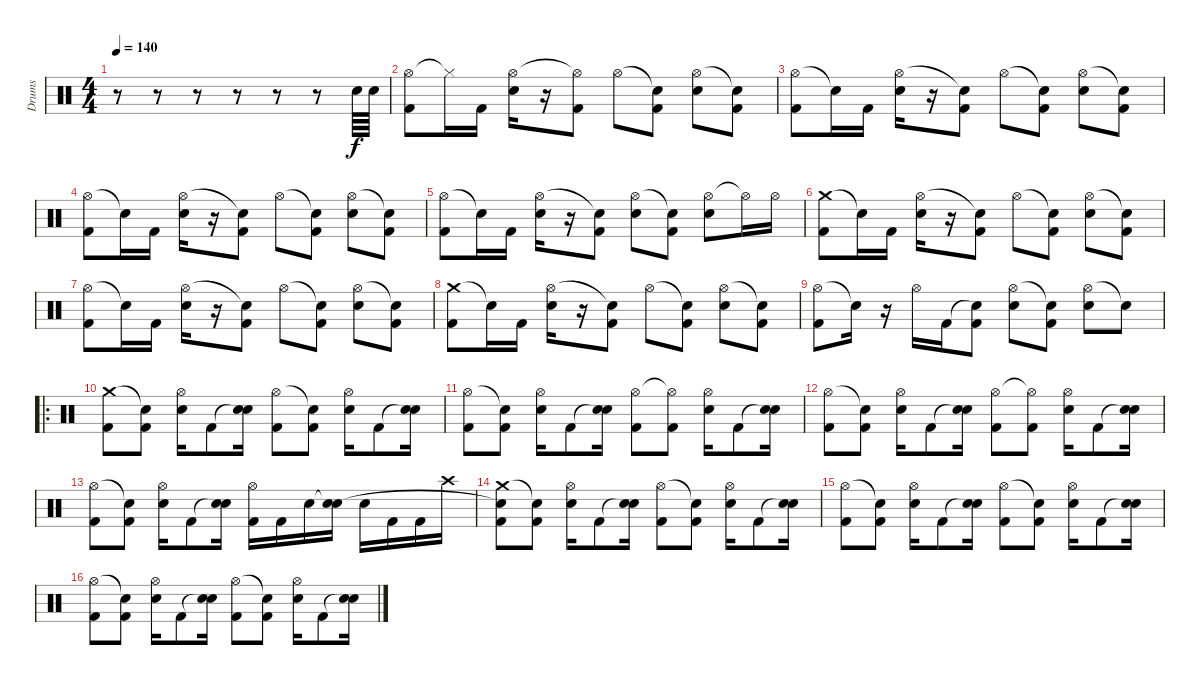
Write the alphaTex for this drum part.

\track ("Drums" "Drums") {instrument percussion}
\staff {score}
\articulation defaults
\ts (4 4)
\tempo 140
\clef neutral
\ks c
r.8{dy f} r.8 r.8 r.8 r.8 r.8 "Electric Snare (hit)".64 "Electric Snare (hit)".64 |
("Hi-Hat (open)" "Kick (hit) 2").8 "Hi-Hat (closed)"{t}.16 "Kick (hit) 2".16 ("Hi-Hat (open)" "Electric Snare (hit)").16 r.16 ("Hi-Hat (open)"{t} "Kick (hit) 2").8 "Hi-Hat (open)".8 ("Snare (hit)"{t} "Kick (hit) 2").8 ("Hi-Hat (open)" "Electric Snare (hit)").8 ("Snare (hit)"{t} "Kick (hit) 2").8 |
("Hi-Hat (open)" "Kick (hit) 2").8 "Snare (hit)"{t}.16 "Kick (hit) 2".16 ("Hi-Hat (open)" "Electric Snare (hit)").16 r.16 ("Snare (hit)"{t} "Kick (hit) 2").8 "Hi-Hat (open)".8 ("Snare (hit)"{t} "Kick (hit) 2").8 ("Hi-Hat (open)" "Electric Snare (hit)").8 ("Snare (hit)"{t} "Kick (hit) 2").8 |
("Hi-Hat (open)" "Kick (hit) 2").8 "Snare (hit)"{t}.16 "Kick (hit) 2".16 ("Hi-Hat (open)" "Electric Snare (hit)").16 r.16 ("Snare (hit)"{t} "Kick (hit) 2").8 "Hi-Hat (open)".8 ("Snare (hit)"{t} "Kick (hit) 2").8 ("Hi-Hat (open)" "Electric Snare (hit)").8 ("Snare (hit)"{t} "Kick (hit) 2").8 |
("Hi-Hat (open)" "Kick (hit) 2").8 "Snare (hit)"{t}.16 "Kick (hit) 2".16 ("Hi-Hat (open)" "Electric Snare (hit)").16 r.16 ("Snare (hit)"{t} "Kick (hit) 2").8 ("Hi-Hat (open)" "Electric Snare (hit)").8 ("Snare (hit)"{t} "Kick (hit) 2").8 ("Hi-Hat (open)" "Electric Snare (hit)").8 "Hi-Hat (open)"{t}.16 "Hi-Hat (open)".16 |
("Crash medium (hit)" "Kick (hit) 2").8 "Snare (hit)"{t}.16 "Kick (hit) 2".16 ("Hi-Hat (open)" "Electric Snare (hit)").16 r.16 ("Snare (hit)"{t} "Kick (hit) 2").8 "Hi-Hat (open)".8 ("Snare (hit)"{t} "Kick (hit) 2").8 ("Hi-Hat (open)" "Electric Snare (hit)").8 ("Snare (hit)"{t} "Kick (hit) 2").8 |
("Hi-Hat (open)" "Kick (hit) 2").8 "Snare (hit)"{t}.16 "Kick (hit) 2".16 ("Hi-Hat (open)" "Electric Snare (hit)").16 r.16 ("Snare (hit)"{t} "Kick (hit) 2").8 "Hi-Hat (open)".8 ("Snare (hit)"{t} "Kick (hit) 2").8 ("Hi-Hat (open)" "Electric Snare (hit)").8 ("Snare (hit)"{t} "Kick (hit) 2").8 |
("Crash medium (hit)" "Kick (hit) 2").8 "Snare (hit)"{t}.16 "Kick (hit) 2".16 ("Hi-Hat (open)" "Electric Snare (hit)").16 r.16 ("Snare (hit)"{t} "Kick (hit) 2").8 "Hi-Hat (open)".8 ("Snare (hit)"{t} "Kick (hit) 2").8 ("Hi-Hat (open)" "Electric Snare (hit)").8 ("Snare (hit)"{t} "Kick (hit) 2").8 |
("Hi-Hat (open)" "Kick (hit) 2").8 "Snare (hit)"{t}.16 r.16 "Hi-Hat (open)".16 "Kick (hit) 2".16 ("Snare (hit)"{t} "Kick (hit) 2").8 ("Hi-Hat (open)" "Electric Snare (hit)").8 ("Snare (hit)"{t} "Kick (hit) 2").8 ("Hi-Hat (open)" "Electric Snare (hit)").8 "Snare (hit)"{t}.8 |
\ro
("Crash medium (hit)" "Kick (hit) 2").8 ("Snare (hit)"{t} "Kick (hit) 2").8 ("Hi-Hat (open)" "Electric Snare (hit)").16 "Kick (hit) 2".8 ("Snare (hit)"{t} "Electric Snare (hit)").16 ("Hi-Hat (open)" "Kick (hit) 2").8 ("Snare (hit)"{t} "Kick (hit) 2").8 ("Hi-Hat (open)" "Electric Snare (hit)").16 "Kick (hit) 2".8 ("Snare (hit)"{t} "Electric Snare (hit)").16 |
("Hi-Hat (open)" "Kick (hit) 2").8 ("Snare (hit)"{t} "Kick (hit) 2").8 ("Hi-Hat (open)" "Electric Snare (hit)").16 "Kick (hit) 2".8 ("Snare (hit)"{t} "Electric Snare (hit)").16 ("Hi-Hat (open)" "Kick (hit) 2").8 ("Hi-Hat (open)"{t} "Kick (hit) 2").8 ("Hi-Hat (open)" "Electric Snare (hit)").16 "Kick (hit) 2".8 ("Snare (hit)"{t} "Electric Snare (hit)").16 |
("Hi-Hat (open)" "Kick (hit) 2").8 ("Snare (hit)"{t} "Kick (hit) 2").8 ("Hi-Hat (open)" "Electric Snare (hit)").16 "Kick (hit) 2".8 ("Snare (hit)"{t} "Electric Snare (hit)").16 ("Hi-Hat (open)" "Kick (hit) 2").8 ("Hi-Hat (open)"{t} "Kick (hit) 2").8 ("Hi-Hat (open)" "Electric Snare (hit)").16 "Kick (hit) 2".8 ("Snare (hit)"{t} "Electric Snare (hit)").16 |
("Hi-Hat (open)" "Kick (hit) 2").8 ("Snare (hit)"{t} "Kick (hit) 2").8 ("Hi-Hat (open)" "Electric Snare (hit)").16 "Kick (hit) 2".8 ("Snare (hit)"{t} "Electric Snare (hit)").16 ("Hi-Hat (open)" "Kick (hit) 2").16 "Kick (hit) 2".16 "Electric Snare (hit)".16 ("Snare (hit)"{t} "Electric Snare (hit)").16 "Electric Snare (hit)".16 "Kick (hit) 2".16 "Kick (hit) 2".16 "Crash high (hit)".16 |
("Crash medium (hit)" "Snare (hit)"{t} "Kick (hit) 2").8 ("Snare (hit)"{t} "Kick (hit) 2").8 ("Hi-Hat (open)" "Electric Snare (hit)").16 "Kick (hit) 2".8 ("Snare (hit)"{t} "Electric Snare (hit)").16 ("Hi-Hat (open)" "Kick (hit) 2").8 ("Snare (hit)"{t} "Kick (hit) 2").8 ("Hi-Hat (open)" "Electric Snare (hit)").16 "Kick (hit) 2".8 ("Snare (hit)"{t} "Electric Snare (hit)").16 |
("Hi-Hat (open)" "Kick (hit) 2").8 ("Snare (hit)"{t} "Kick (hit) 2").8 ("Hi-Hat (open)" "Electric Snare (hit)").16 "Kick (hit) 2".8 ("Snare (hit)"{t} "Electric Snare (hit)").16 ("Hi-Hat (open)" "Kick (hit) 2").8 ("Snare (hit)"{t} "Kick (hit) 2").8 ("Hi-Hat (open)" "Electric Snare (hit)").16 "Kick (hit) 2".8 ("Snare (hit)"{t} "Electric Snare (hit)").16 |
("Hi-Hat (open)" "Kick (hit) 2").8 ("Snare (hit)"{t} "Kick (hit) 2").8 ("Hi-Hat (open)" "Electric Snare (hit)").16 "Kick (hit) 2".8 ("Snare (hit)"{t} "Electric Snare (hit)").16 ("Hi-Hat (open)" "Kick (hit) 2").8 ("Snare (hit)"{t} "Kick (hit) 2").8 ("Hi-Hat (open)" "Electric Snare (hit)").16 "Kick (hit) 2".8 ("Snare (hit)"{t} "Electric Snare (hit)").16
